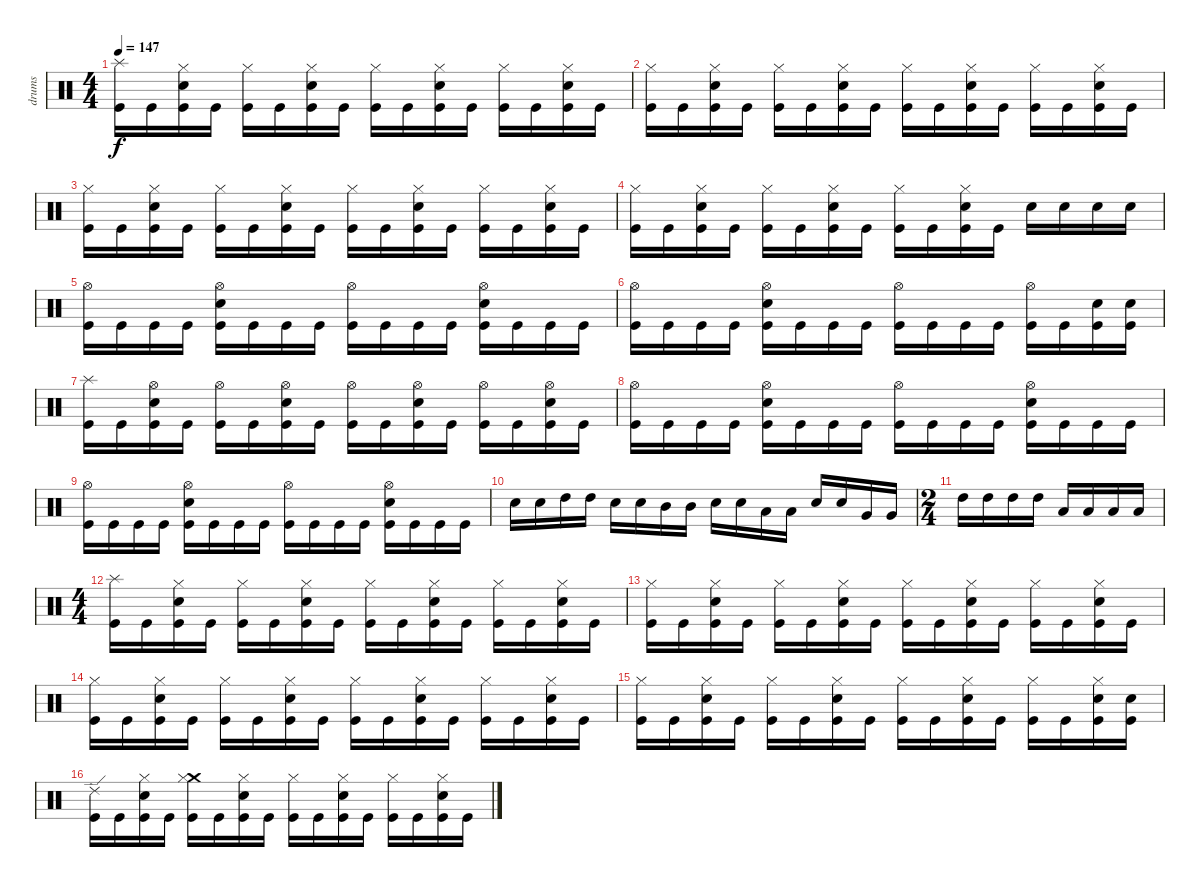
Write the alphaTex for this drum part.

\track ("drums" "drums") {instrument percussion}
\staff {score}
\articulation defaults
\ts (4 4)
\tempo 147
\clef neutral
\ks c
("Splash (hit)" "Kick (hit)").16{dy f} "Kick (hit)".16 ("Snare (hit) 2" "Kick (hit)" "Hi-Hat (closed)").16 "Kick (hit)".16 ("Hi-Hat (closed)" "Kick (hit)").16 "Kick (hit)".16 ("Snare (hit) 2" "Hi-Hat (closed)" "Kick (hit)").16 "Kick (hit)".16 ("Kick (hit)" "Hi-Hat (closed)").16 "Kick (hit)".16 ("Hi-Hat (closed)" "Snare (hit) 2" "Kick (hit)").16 "Kick (hit)".16 ("Kick (hit)" "Hi-Hat (closed)").16 "Kick (hit)".16 ("Snare (hit) 2" "Kick (hit)" "Hi-Hat (closed)").16 "Kick (hit)".16 |
("Hi-Hat (closed)" "Kick (hit)").16 "Kick (hit)".16 ("Hi-Hat (closed)" "Snare (hit) 2" "Kick (hit)").16 "Kick (hit)".16 ("Kick (hit)" "Hi-Hat (closed)").16 "Kick (hit)".16 ("Snare (hit) 2" "Hi-Hat (closed)" "Kick (hit)").16 "Kick (hit)".16 ("Kick (hit)" "Hi-Hat (closed)").16 "Kick (hit)".16 ("Kick (hit)" "Hi-Hat (closed)" "Snare (hit) 2").16 "Kick (hit)".16 ("Kick (hit)" "Hi-Hat (closed)").16 "Kick (hit)".16 ("Snare (hit) 2" "Hi-Hat (closed)" "Kick (hit)").16 "Kick (hit)".16 |
("Hi-Hat (closed)" "Kick (hit)").16 "Kick (hit)".16 ("Hi-Hat (closed)" "Snare (hit) 2" "Kick (hit)").16 "Kick (hit)".16 ("Kick (hit)" "Hi-Hat (closed)").16 "Kick (hit)".16 ("Snare (hit) 2" "Hi-Hat (closed)" "Kick (hit)").16 "Kick (hit)".16 ("Kick (hit)" "Hi-Hat (closed)").16 "Kick (hit)".16 ("Snare (hit) 2" "Kick (hit)" "Hi-Hat (closed)").16 "Kick (hit)".16 ("Kick (hit)" "Hi-Hat (closed)").16 "Kick (hit)".16 ("Hi-Hat (closed)" "Kick (hit)" "Snare (hit) 2").16 "Kick (hit)".16 |
("Hi-Hat (closed)" "Kick (hit)").16 "Kick (hit)".16 ("Kick (hit)" "Snare (hit) 2" "Hi-Hat (closed)").16 "Kick (hit)".16 ("Hi-Hat (closed)" "Kick (hit)").16 "Kick (hit)".16 ("Hi-Hat (closed)" "Snare (hit) 2" "Kick (hit)").16 "Kick (hit)".16 ("Hi-Hat (closed)" "Kick (hit)").16 "Kick (hit)".16 ("Hi-Hat (closed)" "Snare (hit) 2" "Kick (hit)").16 "Kick (hit)".16 "Snare (hit) 2".16 "Snare (hit) 2".16 "Snare (hit) 2".16 "Snare (hit) 2".16 |
("Kick (hit)" "Hi-Hat (open)").16 "Kick (hit)".16 "Kick (hit)".16 "Kick (hit)".16 ("Kick (hit)" "Hi-Hat (open)" "Snare (hit) 2").16 "Kick (hit)".16 "Kick (hit)".16 "Kick (hit)".16 ("Kick (hit)" "Hi-Hat (open)").16 "Kick (hit)".16 "Kick (hit)".16 "Kick (hit)".16 ("Hi-Hat (open)" "Snare (hit) 2" "Kick (hit)").16 "Kick (hit)".16 "Kick (hit)".16 "Kick (hit)".16 |
("Kick (hit)" "Hi-Hat (open)").16 "Kick (hit)".16 "Kick (hit)".16 "Kick (hit)".16 ("Kick (hit)" "Snare (hit) 2" "Hi-Hat (open)").16 "Kick (hit)".16 "Kick (hit)".16 "Kick (hit)".16 ("Kick (hit)" "Hi-Hat (open)").16 "Kick (hit)".16 "Kick (hit)".16 "Kick (hit)".16 ("Kick (hit)" "Hi-Hat (open)").16 "Kick (hit)".16 ("Kick (hit)" "Snare (hit) 2").16 ("Snare (hit) 2" "Kick (hit)").16 |
("Splash (hit)" "Kick (hit)").16 "Kick (hit)".16 ("Kick (hit)" "Snare (hit) 2" "Hi-Hat (open)").16 "Kick (hit)".16 ("Kick (hit)" "Hi-Hat (open)").16 "Kick (hit)".16 ("Kick (hit)" "Snare (hit) 2" "Hi-Hat (open)").16 "Kick (hit)".16 ("Kick (hit)" "Hi-Hat (open)").16 "Kick (hit)".16 ("Hi-Hat (open)" "Kick (hit)" "Snare (hit) 2").16 "Kick (hit)".16 ("Hi-Hat (open)" "Kick (hit)").16 "Kick (hit)".16 ("Hi-Hat (open)" "Snare (hit) 2" "Kick (hit)").16 "Kick (hit)".16 |
("Kick (hit)" "Hi-Hat (open)").16 "Kick (hit)".16 "Kick (hit)".16 "Kick (hit)".16 ("Snare (hit) 2" "Hi-Hat (open)" "Kick (hit)").16 "Kick (hit)".16 "Kick (hit)".16 "Kick (hit)".16 ("Hi-Hat (open)" "Kick (hit)").16 "Kick (hit)".16 "Kick (hit)".16 "Kick (hit)".16 ("Snare (hit) 2" "Hi-Hat (open)" "Kick (hit)").16 "Kick (hit)".16 "Kick (hit)".16 "Kick (hit)".16 |
("Kick (hit)" "Hi-Hat (open)").16 "Kick (hit)".16 "Kick (hit)".16 "Kick (hit)".16 ("Kick (hit)" "Hi-Hat (open)" "Snare (hit) 2").16 "Kick (hit)".16 "Kick (hit)".16 "Kick (hit)".16 ("Hi-Hat (open)" "Kick (hit)").16 "Kick (hit)".16 "Kick (hit)".16 "Kick (hit)".16 ("Kick (hit)" "Hi-Hat (open)" "Snare (hit) 2").16 "Kick (hit)".16 "Kick (hit)".16 "Kick (hit)".16 |
"Snare (hit) 2".16 "Snare (hit) 2".16 "High Tom (hit)".16 "High Tom (hit)".16 "Snare (hit) 2".16 "Snare (hit) 2".16 "Mid Tom (hit)".16 "Mid Tom (hit)".16 "Snare (hit) 2".16 "Snare (hit) 2".16 "Low Tom (hit)".16 "Low Tom (hit)".16 "Snare (hit) 2".16 "Snare (hit) 2".16 "Very Low Tom (hit)".16 "Very Low Tom (hit)".16 |
\ts (2 4)
"High Tom (hit)".16 "High Tom (hit)".16 "High Tom (hit)".16 "High Tom (hit)".16 "Low Tom (hit)".16 "Low Tom (hit)".16 "Low Tom (hit)".16 "Low Tom (hit)".16 |
\ts (4 4)
("Splash (hit)" "Kick (hit)").16 "Kick (hit)".16 ("Kick (hit)" "Snare (hit) 2" "Hi-Hat (closed)").16 "Kick (hit)".16 ("Kick (hit)" "Hi-Hat (closed)").16 "Kick (hit)".16 ("Snare (hit) 2" "Hi-Hat (closed)" "Kick (hit)").16 "Kick (hit)".16 ("Hi-Hat (closed)" "Kick (hit)").16 "Kick (hit)".16 ("Hi-Hat (closed)" "Snare (hit) 2" "Kick (hit)").16 "Kick (hit)".16 ("Hi-Hat (closed)" "Kick (hit)").16 "Kick (hit)".16 ("Kick (hit)" "Hi-Hat (closed)" "Snare (hit) 2").16 "Kick (hit)".16 |
("Kick (hit)" "Hi-Hat (closed)").16 "Kick (hit)".16 ("Kick (hit)" "Hi-Hat (closed)" "Snare (hit) 2").16 "Kick (hit)".16 ("Kick (hit)" "Hi-Hat (closed)").16 "Kick (hit)".16 ("Snare (hit) 2" "Kick (hit)" "Hi-Hat (closed)").16 "Kick (hit)".16 ("Hi-Hat (closed)" "Kick (hit)").16 "Kick (hit)".16 ("Snare (hit) 2" "Kick (hit)" "Hi-Hat (closed)").16 "Kick (hit)".16 ("Kick (hit)" "Hi-Hat (closed)").16 "Kick (hit)".16 ("Hi-Hat (closed)" "Snare (hit) 2" "Kick (hit)").16 "Kick (hit)".16 |
("Kick (hit)" "Hi-Hat (closed)").16 "Kick (hit)".16 ("Snare (hit) 2" "Kick (hit)" "Hi-Hat (closed)").16 "Kick (hit)".16 ("Kick (hit)" "Hi-Hat (closed)").16 "Kick (hit)".16 ("Kick (hit)" "Hi-Hat (closed)" "Snare (hit) 2").16 "Kick (hit)".16 ("Hi-Hat (closed)" "Kick (hit)").16 "Kick (hit)".16 ("Snare (hit) 2" "Kick (hit)" "Hi-Hat (closed)").16 "Kick (hit)".16 ("Kick (hit)" "Hi-Hat (closed)").16 "Kick (hit)".16 ("Kick (hit)" "Hi-Hat (closed)" "Snare (hit) 2").16 "Kick (hit)".16 |
("Kick (hit)" "Hi-Hat (closed)").16 "Kick (hit)".16 ("Snare (hit) 2" "Kick (hit)" "Hi-Hat (closed)").16 "Kick (hit)".16 ("Hi-Hat (closed)" "Kick (hit)").16 "Kick (hit)".16 ("Snare (hit) 2" "Kick (hit)" "Hi-Hat (closed)").16 "Kick (hit)".16 ("Kick (hit)" "Hi-Hat (closed)").16 "Kick (hit)".16 ("Hi-Hat (closed)" "Snare (hit) 2" "Kick (hit)").16 "Kick (hit)".16 ("Kick (hit)" "Hi-Hat (closed)").16 "Kick (hit)".16 ("Snare (hit) 2" "Hi-Hat (closed)" "Kick (hit)").16 ("Snare (hit) 2" "Kick (hit)").16 |
("Kick (hit)" "Ride (edge) 2").16 "Kick (hit)".16 ("Kick (hit)" "Snare (hit) 2" "Hi-Hat (closed)").16 "Kick (hit)".16 ("Crash medium (hit)" "Kick (hit)" "Hi-Hat (closed)").16 "Kick (hit)".16 ("Hi-Hat (closed)" "Kick (hit)" "Snare (hit) 2").16 "Kick (hit)".16 ("Hi-Hat (closed)" "Kick (hit)").16 "Kick (hit)".16 ("Hi-Hat (closed)" "Snare (hit) 2" "Kick (hit)").16 "Kick (hit)".16 ("Kick (hit)" "Hi-Hat (closed)").16 "Kick (hit)".16 ("Kick (hit)" "Snare (hit) 2" "Hi-Hat (closed)").16 "Kick (hit)".16
